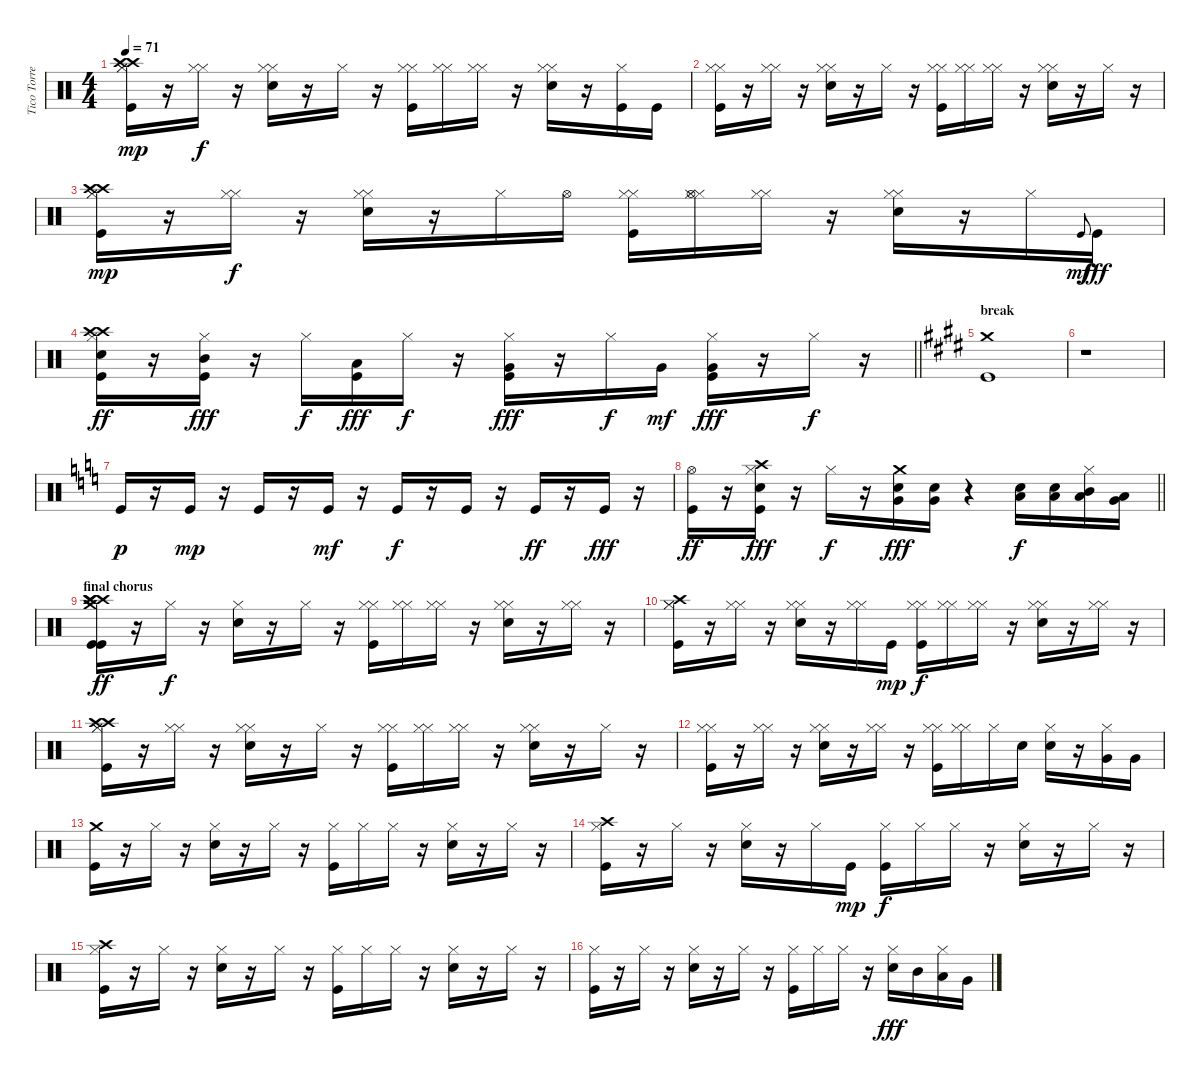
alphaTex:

\track ("Tico Torres" "Tico Torre") {instrument percussion}
\staff {score}
\articulation defaults
\ts (4 4)
\tempo 71
\clef neutral
\ks c
("Hi-Hat (closed)" "Crash high (hit)" "Hi-Hat (closed)" "Kick (hit)" "Crash high (hit)").16{dy mp} r.16 ("Hi-Hat (closed)" "Hi-Hat (closed)").16{dy f} r.16 ("Hi-Hat (closed)" "Hi-Hat (closed)" "Snare (hit) 2").16 r.16 "Hi-Hat (closed)".16 r.16 ("Hi-Hat (closed)" "Hi-Hat (closed)" "Kick (hit)").16 ("Hi-Hat (closed)" "Hi-Hat (closed)").16 ("Hi-Hat (closed)" "Hi-Hat (closed)").16 r.16 ("Hi-Hat (closed)" "Hi-Hat (closed)" "Snare (hit) 2").16 r.16 ("Kick (hit)" "Hi-Hat (closed)").16 "Kick (hit)".16 |
("Hi-Hat (closed)" "Hi-Hat (closed)" "Kick (hit)").16 r.16 ("Hi-Hat (closed)" "Hi-Hat (closed)").16 r.16 ("Hi-Hat (closed)" "Hi-Hat (closed)" "Snare (hit) 2").16 r.16 "Hi-Hat (closed)".16 r.16 ("Hi-Hat (closed)" "Hi-Hat (closed)" "Kick (hit)").16 ("Hi-Hat (closed)" "Hi-Hat (closed)").16 ("Hi-Hat (closed)" "Hi-Hat (closed)").16 r.16 ("Hi-Hat (closed)" "Hi-Hat (closed)" "Snare (hit) 2").16 r.16 "Hi-Hat (closed)".16 r.16 |
("Hi-Hat (closed)" "Crash high (hit)" "Hi-Hat (closed)" "Kick (hit)" "Crash high (hit)").16{dy mp} r.16 ("Hi-Hat (closed)" "Hi-Hat (closed)").16{dy f} r.16 ("Hi-Hat (closed)" "Hi-Hat (closed)" "Snare (hit) 2").16 r.16 "Hi-Hat (closed)".16 "Hi-Hat (open)".16 ("Hi-Hat (closed)" "Hi-Hat (closed)" "Kick (hit)").16 ("Hi-Hat (closed)" "Hi-Hat (closed)" "Hi-Hat (open)").16 ("Hi-Hat (closed)" "Hi-Hat (closed)").16 r.16 ("Hi-Hat (closed)" "Hi-Hat (closed)" "Snare (hit) 2").16 r.16 "Hi-Hat (closed)".16 "Kick (hit)"{x}.8{gr onbeat dy mf} "Kick (hit)".16{dy fff} |
\barLineRight lightlight
("Snare (hit) 2" "Hi-Hat (closed)" "Kick (hit)" "Crash high (hit)" "Crash high (hit)").16{dy ff} r.16 ("Hi-Hat (closed)" "Kick (hit)" "Mid Tom (hit)").16{dy fff} r.16 "Hi-Hat (closed)".16{dy f} ("Kick (hit)" "Low Tom (hit)").16{dy fff} "Hi-Hat (closed)".16{dy f} r.16 ("Hi-Hat (closed)" "Kick (hit)" "Very Low Tom (hit)").16{dy fff} r.16 "Hi-Hat (closed)".16{dy f} "Very Low Tom (hit)".16{dy mf} ("Hi-Hat (closed)" "Kick (hit)" "Very Low Tom (hit)").16{dy fff} r.16 "Hi-Hat (closed)".16{dy f} r.16 |
\section ("" "break")
\ks e
("Kick (hit)" "Crash medium (hit)").1 |
r.1 |
\ks c "Kick (hit)".16{dy p}
r.16 "Kick (hit)".16{dy mp} r.16 "Kick (hit)".16 r.16 "Kick (hit)".16{dy mf} r.16 "Kick (hit)".16{dy f} r.16 "Kick (hit)".16 r.16 "Kick (hit)".16{dy ff} r.16 "Kick (hit)".16{dy fff} r.16 |
\barLineRight lightlight
("Kick (hit)" "Hi-Hat (open)").16{dy ff} r.16 ("Kick (hit)" "Electric Snare (hit)" "Crash high (hit)" "Hi-Hat (closed)").16{dy fff} r.16 "Hi-Hat (closed)".16{dy f} r.16 ("Electric Snare (hit)" "Very Low Tom (hit)" "Crash medium (hit)").16{dy fff} ("Electric Snare (hit)" "Very Low Tom (hit)").16 r.4 ("Low Floor Tom (hit)" "Snare (hit) 2").16{dy f} ("Low Floor Tom (hit)" "Snare (hit) 2").16 ("Low Tom (hit)" "Mid Tom (hit)" "Hi-Hat (closed)").16 ("Low Floor Tom (hit)" "Very Low Tom (hit)").16 |
\section ("" "final chorus")
("Crash high (hit)" "Crash high (hit)" "Kick (hit)" "Crash high (hit)" "Crash medium (hit)" "Kick (hit)").16{dy ff} r.16 "Hi-Hat (closed)".16{dy f} r.16 ("Hi-Hat (closed)" "Snare (hit) 2").16 r.16 "Hi-Hat (closed)".16 r.16 ("Hi-Hat (closed)" "Hi-Hat (closed)" "Kick (hit)").16 ("Hi-Hat (closed)" "Hi-Hat (closed)").16 ("Hi-Hat (closed)" "Hi-Hat (closed)").16 r.16 ("Hi-Hat (closed)" "Hi-Hat (closed)" "Snare (hit) 2").16 r.16 ("Hi-Hat (closed)" "Hi-Hat (closed)").16 r.16 |
("Hi-Hat (closed)" "Kick (hit)" "Crash high (hit)" "Hi-Hat (closed)").16 r.16 ("Hi-Hat (closed)" "Hi-Hat (closed)").16 r.16 ("Hi-Hat (closed)" "Snare (hit) 2" "Hi-Hat (closed)").16 r.16 ("Hi-Hat (closed)" "Hi-Hat (closed)").16 "Kick (hit)".16{dy mp} ("Hi-Hat (closed)" "Kick (hit)" "Hi-Hat (closed)").16{dy f} ("Hi-Hat (closed)" "Hi-Hat (closed)").16 ("Hi-Hat (closed)" "Hi-Hat (closed)").16 r.16 ("Hi-Hat (closed)" "Snare (hit) 2" "Hi-Hat (closed)").16 r.16 ("Hi-Hat (closed)" "Hi-Hat (closed)").16 r.16 |
("Hi-Hat (closed)" "Crash high (hit)" "Hi-Hat (closed)" "Kick (hit)" "Crash high (hit)").16 r.16 ("Hi-Hat (closed)" "Hi-Hat (closed)").16 r.16 ("Hi-Hat (closed)" "Hi-Hat (closed)" "Snare (hit) 2").16 r.16 "Hi-Hat (closed)".16 r.16 ("Hi-Hat (closed)" "Hi-Hat (closed)" "Kick (hit)").16 ("Hi-Hat (closed)" "Hi-Hat (closed)").16 ("Hi-Hat (closed)" "Hi-Hat (closed)").16 r.16 ("Hi-Hat (closed)" "Hi-Hat (closed)" "Snare (hit) 2").16 r.16 "Hi-Hat (closed)".16 r.16 |
("Hi-Hat (closed)" "Kick (hit)" "Hi-Hat (closed)").16 r.16 ("Hi-Hat (closed)" "Hi-Hat (closed)").16 r.16 ("Hi-Hat (closed)" "Snare (hit) 2" "Hi-Hat (closed)").16 r.16 ("Hi-Hat (closed)" "Hi-Hat (closed)").16 r.16 ("Hi-Hat (closed)" "Kick (hit)" "Hi-Hat (closed)").16 ("Hi-Hat (closed)" "Hi-Hat (closed)").16 "Hi-Hat (closed)".16 "Snare (hit) 2".16 ("Snare (hit) 2" "Hi-Hat (closed)").16 r.16 ("Very Low Tom (hit)" "Hi-Hat (closed)").16 "Very Low Tom (hit)".16 |
("Kick (hit)" "Crash medium (hit)").16 r.16 "Hi-Hat (closed)".16 r.16 ("Hi-Hat (closed)" "Snare (hit) 2").16 r.16 "Hi-Hat (closed)".16 r.16 ("Hi-Hat (closed)" "Kick (hit)").16 "Hi-Hat (closed)".16 "Hi-Hat (closed)".16 r.16 ("Hi-Hat (closed)" "Snare (hit) 2").16 r.16 "Hi-Hat (closed)".16 r.16 |
("Kick (hit)" "Crash high (hit)" "Hi-Hat (closed)").16 r.16 "Hi-Hat (closed)".16 r.16 ("Snare (hit) 2" "Hi-Hat (closed)").16 r.16 "Hi-Hat (closed)".16 "Kick (hit)".16{dy mp} ("Kick (hit)" "Hi-Hat (closed)").16{dy f} "Hi-Hat (closed)".16 "Hi-Hat (closed)".16 r.16 ("Snare (hit) 2" "Hi-Hat (closed)").16 r.16 "Hi-Hat (closed)".16 r.16 |
("Hi-Hat (closed)" "Kick (hit)" "Crash high (hit)").16 r.16 "Hi-Hat (closed)".16 r.16 ("Hi-Hat (closed)" "Snare (hit) 2").16 r.16 "Hi-Hat (closed)".16 r.16 ("Hi-Hat (closed)" "Kick (hit)").16 "Hi-Hat (closed)".16 "Hi-Hat (closed)".16 r.16 ("Hi-Hat (closed)" "Snare (hit) 2").16 r.16 "Hi-Hat (closed)".16 r.16 |
("Kick (hit)" "Hi-Hat (closed)").16 r.16 "Hi-Hat (closed)".16 r.16 ("Snare (hit) 2" "Hi-Hat (closed)").16 r.16 "Hi-Hat (closed)".16 r.16 ("Kick (hit)" "Hi-Hat (closed)").16 "Hi-Hat (closed)".16 "Hi-Hat (closed)".16 r.16 ("Hi-Hat (closed)" "Snare (hit) 2").16{dy fff} "Mid Tom (hit)".16 ("Hi-Hat (closed)" "Low Tom (hit)").16 "Very Low Tom (hit)".16
